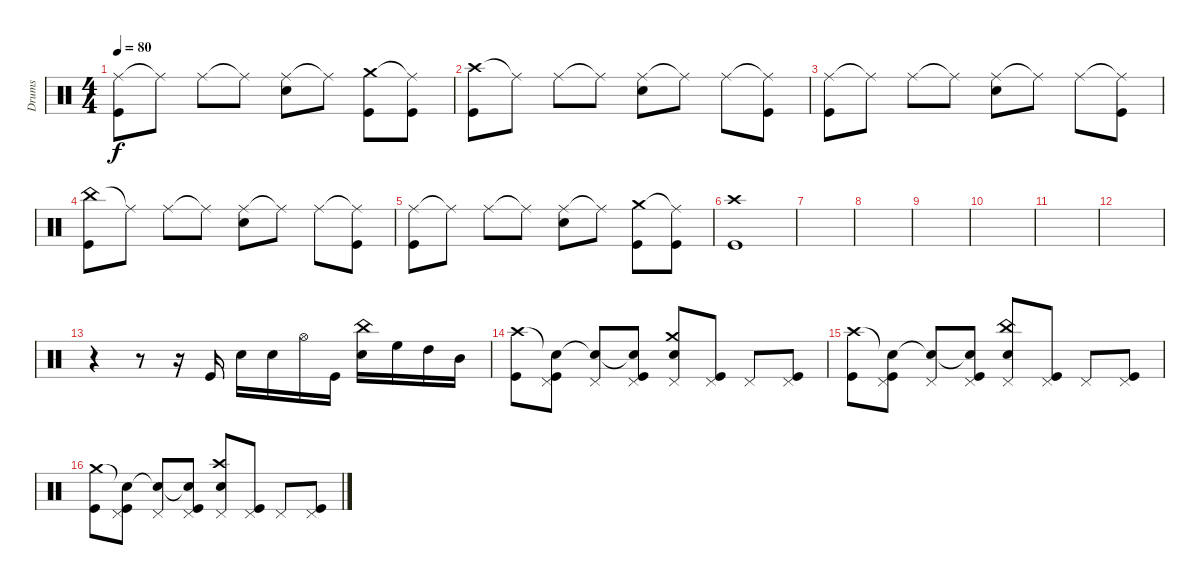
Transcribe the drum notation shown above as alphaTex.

\track ("Drums" "Drums") {instrument percussion}
\staff {score}
\articulation defaults
\ts (4 4)
\tempo 80
\clef neutral
\ks c
("Ride (middle)" "Kick (hit)").8{dy f} "Ride (middle)"{t}.8 "Ride (middle)".8 "Ride (middle)"{t}.8 ("Ride (middle)" "Electric Snare (hit)").8 "Ride (middle)"{t}.8 ("Crash medium (hit)" "Kick (hit)").8 ("Ride (middle)"{t} "Kick (hit)").8 |
("Crash high (hit)" "Kick (hit)").8 "Ride (middle)"{t}.8 "Ride (middle)".8 "Ride (middle)"{t}.8 ("Ride (middle)" "Electric Snare (hit)").8 "Ride (middle)"{t}.8 "Ride (middle)".8 ("Ride (middle)"{t} "Kick (hit)").8 |
("Ride (middle)" "Kick (hit)").8 "Ride (middle)"{t}.8 "Ride (middle)".8 "Ride (middle)"{t}.8 ("Ride (middle)" "Electric Snare (hit)").8 "Ride (middle)"{t}.8 "Ride (middle)".8 ("Ride (middle)"{t} "Kick (hit)").8 |
("China (hit)" "Kick (hit)").8 "Ride (middle)"{t}.8 "Ride (middle)".8 "Ride (middle)"{t}.8 ("Ride (middle)" "Electric Snare (hit)").8 "Ride (middle)"{t}.8 "Ride (middle)".8 ("Ride (middle)"{t} "Kick (hit)").8 |
("Ride (middle)" "Kick (hit)").8 "Ride (middle)"{t}.8 "Ride (middle)".8 "Ride (middle)"{t}.8 ("Ride (middle)" "Electric Snare (hit)").8 "Ride (middle)"{t}.8 ("Crash medium (hit)" "Kick (hit)").8 ("Ride (middle)"{t} "Kick (hit)").8 |
("Crash high (hit)" "Kick (hit)").1 |
|
|
|
|
|
|
r.4 r.8 r.16 "Kick (hit)".16 "Electric Snare (hit)".16 "Electric Snare (hit)".16 "Hi-Hat (open)".16 "Kick (hit)".16 ("China (hit)" "Electric Snare (hit)").16 "High Floor Tom (hit)".16 "High Tom (hit)".16 "Mid Tom (hit)".16 |
("Crash high (hit)" "Kick (hit)").8 ("Snare (hit)"{t} "Pedal Hi-Hat (hit)" "Kick (hit)").8 ("Snare (hit)"{t} "Pedal Hi-Hat (hit)").8 ("Snare (hit)"{t} "Pedal Hi-Hat (hit)" "Kick (hit)").8 ("Crash medium (hit)" "Pedal Hi-Hat (hit)" "Electric Snare (hit)").8 ("Pedal Hi-Hat (hit)" "Kick (hit)").8 "Pedal Hi-Hat (hit)".8 ("Pedal Hi-Hat (hit)" "Kick (hit)").8 |
("Crash high (hit)" "Kick (hit)").8 ("Snare (hit)"{t} "Pedal Hi-Hat (hit)" "Kick (hit)").8 ("Snare (hit)"{t} "Pedal Hi-Hat (hit)").8 ("Snare (hit)"{t} "Pedal Hi-Hat (hit)" "Kick (hit)").8 ("China (hit)" "Pedal Hi-Hat (hit)" "Electric Snare (hit)").8 ("Pedal Hi-Hat (hit)" "Kick (hit)").8 "Pedal Hi-Hat (hit)".8 ("Pedal Hi-Hat (hit)" "Kick (hit)").8 |
("Crash medium (hit)" "Kick (hit)").8 ("Snare (hit)"{t} "Pedal Hi-Hat (hit)" "Kick (hit)").8 ("Snare (hit)"{t} "Pedal Hi-Hat (hit)").8 ("Snare (hit)"{t} "Pedal Hi-Hat (hit)" "Kick (hit)").8 ("Crash high (hit)" "Pedal Hi-Hat (hit)" "Electric Snare (hit)").8 ("Pedal Hi-Hat (hit)" "Kick (hit)").8 "Pedal Hi-Hat (hit)".8 ("Pedal Hi-Hat (hit)" "Kick (hit)").8
